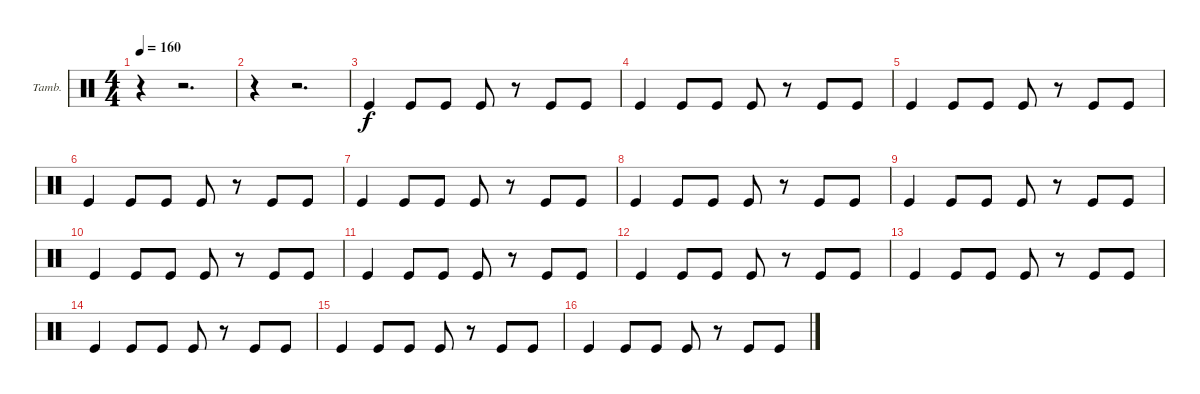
\bracketExtendMode groupsimilarinstruments
\firstSystemTrackNameOrientation horizontal
\otherSystemsTrackNameOrientation horizontal
\track ("Tambourine" "Tamb.") {instrument percussion}
\staff {score}
\articulation defaults
\ts (4 4)
\tempo 160
\clef neutral
\ks c
r.4{dy f} r.2{d} |
r.4 r.2{d} |
"Kick (hit)".4 "Kick (hit)".8 "Kick (hit)".8 "Kick (hit)".8 r.8 "Kick (hit)".8 "Kick (hit)".8 |
"Kick (hit)".4 "Kick (hit)".8 "Kick (hit)".8 "Kick (hit)".8 r.8 "Kick (hit)".8 "Kick (hit)".8 |
"Kick (hit)".4 "Kick (hit)".8 "Kick (hit)".8 "Kick (hit)".8 r.8 "Kick (hit)".8 "Kick (hit)".8 |
"Kick (hit)".4 "Kick (hit)".8 "Kick (hit)".8 "Kick (hit)".8 r.8 "Kick (hit)".8 "Kick (hit)".8 |
"Kick (hit)".4 "Kick (hit)".8 "Kick (hit)".8 "Kick (hit)".8 r.8 "Kick (hit)".8 "Kick (hit)".8 |
"Kick (hit)".4 "Kick (hit)".8 "Kick (hit)".8 "Kick (hit)".8 r.8 "Kick (hit)".8 "Kick (hit)".8 |
"Kick (hit)".4 "Kick (hit)".8 "Kick (hit)".8 "Kick (hit)".8 r.8 "Kick (hit)".8 "Kick (hit)".8 |
"Kick (hit)".4 "Kick (hit)".8 "Kick (hit)".8 "Kick (hit)".8 r.8 "Kick (hit)".8 "Kick (hit)".8 |
"Kick (hit)".4 "Kick (hit)".8 "Kick (hit)".8 "Kick (hit)".8 r.8 "Kick (hit)".8 "Kick (hit)".8 |
"Kick (hit)".4 "Kick (hit)".8 "Kick (hit)".8 "Kick (hit)".8 r.8 "Kick (hit)".8 "Kick (hit)".8 |
"Kick (hit)".4 "Kick (hit)".8 "Kick (hit)".8 "Kick (hit)".8 r.8 "Kick (hit)".8 "Kick (hit)".8 |
"Kick (hit)".4 "Kick (hit)".8 "Kick (hit)".8 "Kick (hit)".8 r.8 "Kick (hit)".8 "Kick (hit)".8 |
"Kick (hit)".4 "Kick (hit)".8 "Kick (hit)".8 "Kick (hit)".8 r.8 "Kick (hit)".8 "Kick (hit)".8 |
"Kick (hit)".4 "Kick (hit)".8 "Kick (hit)".8 "Kick (hit)".8 r.8 "Kick (hit)".8 "Kick (hit)".8
